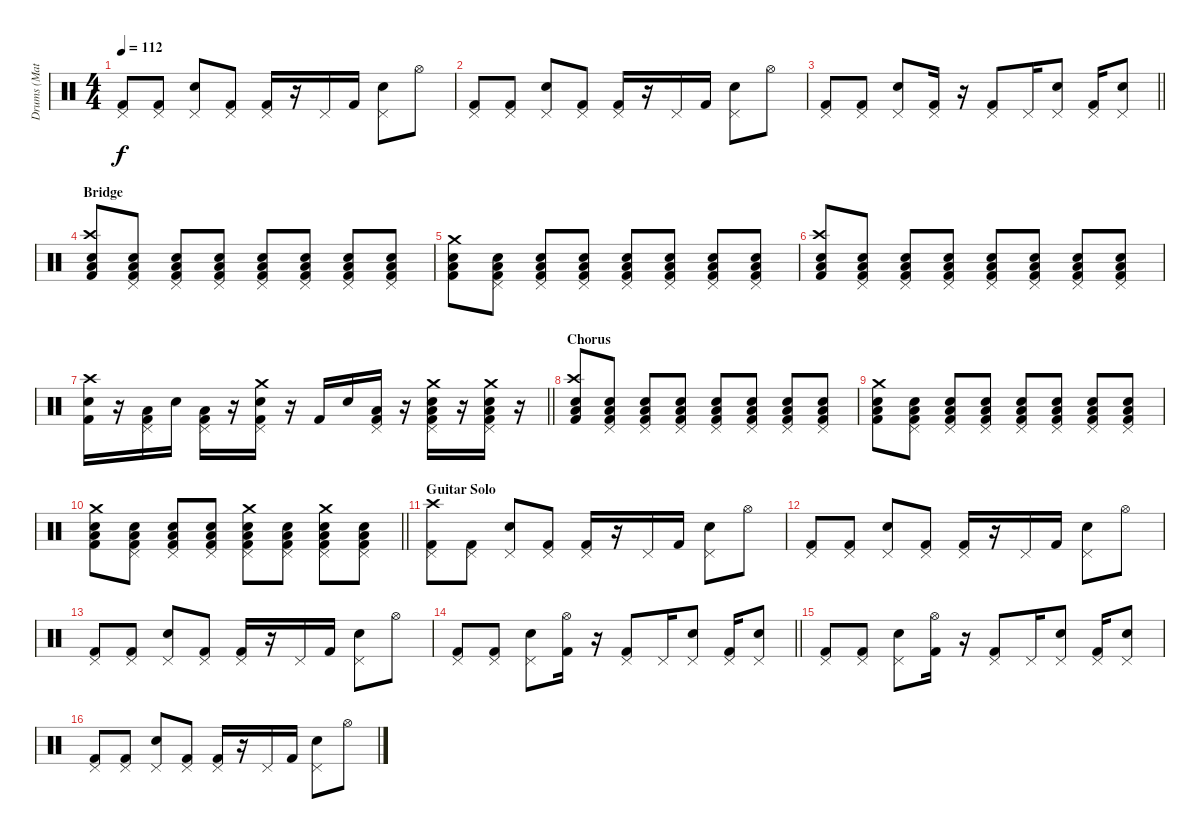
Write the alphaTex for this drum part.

\track ("Drums (Matt)" "Drums (Mat") {instrument percussion}
\staff {score}
\articulation defaults
\ts (4 4)
\tempo 112
\clef neutral
\ks c
("Pedal Hi-Hat (hit)" "Kick (hit) 2").8{dy f} ("Pedal Hi-Hat (hit)" "Kick (hit) 2").8 ("Pedal Hi-Hat (hit)" "Electric Snare (hit)").8 ("Pedal Hi-Hat (hit)" "Kick (hit) 2").8 ("Pedal Hi-Hat (hit)" "Kick (hit) 2").16 r.16 "Pedal Hi-Hat (hit)".16 "Kick (hit) 2".16 ("Pedal Hi-Hat (hit)" "Electric Snare (hit)").8 "Hi-Hat (open)".8 |
("Pedal Hi-Hat (hit)" "Kick (hit) 2").8 ("Pedal Hi-Hat (hit)" "Kick (hit) 2").8 ("Pedal Hi-Hat (hit)" "Electric Snare (hit)").8 ("Pedal Hi-Hat (hit)" "Kick (hit) 2").8 ("Pedal Hi-Hat (hit)" "Kick (hit) 2").16 r.16 "Pedal Hi-Hat (hit)".16 "Kick (hit) 2".16 ("Pedal Hi-Hat (hit)" "Electric Snare (hit)").8 "Hi-Hat (open)".8 |
\barLineRight lightlight
("Pedal Hi-Hat (hit)" "Kick (hit) 2").8 ("Pedal Hi-Hat (hit)" "Kick (hit) 2").8 ("Pedal Hi-Hat (hit)" "Electric Snare (hit)").8 ("Pedal Hi-Hat (hit)" "Kick (hit) 2").16 r.16 ("Pedal Hi-Hat (hit)" "Kick (hit) 2").8 "Pedal Hi-Hat (hit)".16 ("Pedal Hi-Hat (hit)" "Electric Snare (hit)").8 ("Pedal Hi-Hat (hit)" "Kick (hit) 2").16 ("Pedal Hi-Hat (hit)" "Electric Snare (hit)").8 |
\section ("" "Bridge")
("Crash high (hit)" "Electric Snare (hit)" "Low Floor Tom (hit)" "Kick (hit) 2").8 ("Pedal Hi-Hat (hit)" "Electric Snare (hit)" "Low Floor Tom (hit)" "Kick (hit) 2").8 ("Pedal Hi-Hat (hit)" "Electric Snare (hit)" "Low Floor Tom (hit)" "Kick (hit) 2").8 ("Pedal Hi-Hat (hit)" "Electric Snare (hit)" "Low Floor Tom (hit)" "Kick (hit) 2").8 ("Pedal Hi-Hat (hit)" "Electric Snare (hit)" "Low Floor Tom (hit)" "Kick (hit) 2").8 ("Pedal Hi-Hat (hit)" "Electric Snare (hit)" "Low Floor Tom (hit)" "Kick (hit) 2").8 ("Pedal Hi-Hat (hit)" "Electric Snare (hit)" "Low Floor Tom (hit)" "Kick (hit) 2").8 ("Pedal Hi-Hat (hit)" "Electric Snare (hit)" "Low Floor Tom (hit)" "Kick (hit) 2").8 |
("Crash medium (hit)" "Electric Snare (hit)" "Low Floor Tom (hit)" "Kick (hit) 2").8 ("Pedal Hi-Hat (hit)" "Electric Snare (hit)" "Low Floor Tom (hit)" "Kick (hit) 2").8 ("Pedal Hi-Hat (hit)" "Electric Snare (hit)" "Low Floor Tom (hit)" "Kick (hit) 2").8 ("Pedal Hi-Hat (hit)" "Electric Snare (hit)" "Low Floor Tom (hit)" "Kick (hit) 2").8 ("Pedal Hi-Hat (hit)" "Electric Snare (hit)" "Low Floor Tom (hit)" "Kick (hit) 2").8 ("Pedal Hi-Hat (hit)" "Electric Snare (hit)" "Low Floor Tom (hit)" "Kick (hit) 2").8 ("Pedal Hi-Hat (hit)" "Electric Snare (hit)" "Low Floor Tom (hit)" "Kick (hit) 2").8 ("Pedal Hi-Hat (hit)" "Electric Snare (hit)" "Low Floor Tom (hit)" "Kick (hit) 2").8 |
("Crash high (hit)" "Electric Snare (hit)" "Low Floor Tom (hit)" "Kick (hit) 2").8 ("Pedal Hi-Hat (hit)" "Electric Snare (hit)" "Low Floor Tom (hit)" "Kick (hit) 2").8 ("Pedal Hi-Hat (hit)" "Electric Snare (hit)" "Low Floor Tom (hit)" "Kick (hit) 2").8 ("Pedal Hi-Hat (hit)" "Electric Snare (hit)" "Low Floor Tom (hit)" "Kick (hit) 2").8 ("Pedal Hi-Hat (hit)" "Electric Snare (hit)" "Low Floor Tom (hit)" "Kick (hit) 2").8 ("Pedal Hi-Hat (hit)" "Electric Snare (hit)" "Low Floor Tom (hit)" "Kick (hit) 2").8 ("Pedal Hi-Hat (hit)" "Electric Snare (hit)" "Low Floor Tom (hit)" "Kick (hit) 2").8 ("Pedal Hi-Hat (hit)" "Electric Snare (hit)" "Low Floor Tom (hit)" "Kick (hit) 2").8 |
\barLineRight lightlight
("Crash high (hit)" "Electric Snare (hit)" "Kick (hit) 2").16 r.16 ("Pedal Hi-Hat (hit)" "Low Floor Tom (hit)" "Kick (hit) 2").16 "Electric Snare (hit)".16 ("Pedal Hi-Hat (hit)" "Low Floor Tom (hit)" "Kick (hit) 2").16 r.16 ("Crash medium (hit)" "Pedal Hi-Hat (hit)" "Electric Snare (hit)" "Kick (hit) 2").16 r.16 "Kick (hit) 2".16 "Electric Snare (hit)".16 ("Pedal Hi-Hat (hit)" "Low Floor Tom (hit)" "Kick (hit) 2").16 r.16 ("Crash medium (hit)" "Pedal Hi-Hat (hit)" "Electric Snare (hit)" "Low Floor Tom (hit)" "Kick (hit) 2").16 r.16 ("Crash medium (hit)" "Pedal Hi-Hat (hit)" "Electric Snare (hit)" "Low Floor Tom (hit)" "Kick (hit) 2").16 r.16 |
\section ("" "Chorus")
("Crash high (hit)" "Electric Snare (hit)" "Low Floor Tom (hit)" "Kick (hit) 2").8 ("Pedal Hi-Hat (hit)" "Electric Snare (hit)" "Low Floor Tom (hit)" "Kick (hit) 2").8 ("Pedal Hi-Hat (hit)" "Electric Snare (hit)" "Low Floor Tom (hit)" "Kick (hit) 2").8 ("Pedal Hi-Hat (hit)" "Electric Snare (hit)" "Low Floor Tom (hit)" "Kick (hit) 2").8 ("Pedal Hi-Hat (hit)" "Electric Snare (hit)" "Low Floor Tom (hit)" "Kick (hit) 2").8 ("Pedal Hi-Hat (hit)" "Electric Snare (hit)" "Low Floor Tom (hit)" "Kick (hit) 2").8 ("Pedal Hi-Hat (hit)" "Electric Snare (hit)" "Low Floor Tom (hit)" "Kick (hit) 2").8 ("Pedal Hi-Hat (hit)" "Electric Snare (hit)" "Low Floor Tom (hit)" "Kick (hit) 2").8 |
("Crash medium (hit)" "Electric Snare (hit)" "Low Floor Tom (hit)" "Kick (hit) 2").8 ("Pedal Hi-Hat (hit)" "Electric Snare (hit)" "Low Floor Tom (hit)" "Kick (hit) 2").8 ("Pedal Hi-Hat (hit)" "Electric Snare (hit)" "Low Floor Tom (hit)" "Kick (hit) 2").8 ("Pedal Hi-Hat (hit)" "Electric Snare (hit)" "Low Floor Tom (hit)" "Kick (hit) 2").8 ("Pedal Hi-Hat (hit)" "Electric Snare (hit)" "Low Floor Tom (hit)" "Kick (hit) 2").8 ("Pedal Hi-Hat (hit)" "Electric Snare (hit)" "Low Floor Tom (hit)" "Kick (hit) 2").8 ("Pedal Hi-Hat (hit)" "Electric Snare (hit)" "Low Floor Tom (hit)" "Kick (hit) 2").8 ("Pedal Hi-Hat (hit)" "Electric Snare (hit)" "Low Floor Tom (hit)" "Kick (hit) 2").8 |
\barLineRight lightlight
("Crash medium (hit)" "Electric Snare (hit)" "Low Floor Tom (hit)" "Kick (hit) 2").8 ("Pedal Hi-Hat (hit)" "Electric Snare (hit)" "Low Floor Tom (hit)" "Kick (hit) 2").8 ("Pedal Hi-Hat (hit)" "Electric Snare (hit)" "Low Floor Tom (hit)" "Kick (hit) 2").8 ("Pedal Hi-Hat (hit)" "Electric Snare (hit)" "Low Floor Tom (hit)" "Kick (hit) 2").8 ("Crash medium (hit)" "Pedal Hi-Hat (hit)" "Electric Snare (hit)" "Low Floor Tom (hit)" "Kick (hit) 2").8 ("Pedal Hi-Hat (hit)" "Electric Snare (hit)" "Low Floor Tom (hit)" "Kick (hit) 2").8 ("Crash medium (hit)" "Pedal Hi-Hat (hit)" "Electric Snare (hit)" "Low Floor Tom (hit)" "Kick (hit) 2").8 ("Pedal Hi-Hat (hit)" "Electric Snare (hit)" "Low Floor Tom (hit)" "Kick (hit) 2").8 |
\section ("" "Guitar Solo")
("Crash high (hit)" "Pedal Hi-Hat (hit)" "Kick (hit) 2").8 ("Pedal Hi-Hat (hit)" "Kick (hit) 2").8 ("Pedal Hi-Hat (hit)" "Electric Snare (hit)").8 ("Pedal Hi-Hat (hit)" "Kick (hit) 2").8 ("Pedal Hi-Hat (hit)" "Kick (hit) 2").16 r.16 "Pedal Hi-Hat (hit)".16 "Kick (hit) 2".16 ("Pedal Hi-Hat (hit)" "Electric Snare (hit)").8 "Hi-Hat (open)".8 |
("Pedal Hi-Hat (hit)" "Kick (hit) 2").8 ("Pedal Hi-Hat (hit)" "Kick (hit) 2").8 ("Pedal Hi-Hat (hit)" "Electric Snare (hit)").8 ("Pedal Hi-Hat (hit)" "Kick (hit) 2").8 ("Pedal Hi-Hat (hit)" "Kick (hit) 2").16 r.16 "Pedal Hi-Hat (hit)".16 "Kick (hit) 2".16 ("Pedal Hi-Hat (hit)" "Electric Snare (hit)").8 "Hi-Hat (open)".8 |
("Pedal Hi-Hat (hit)" "Kick (hit) 2").8 ("Pedal Hi-Hat (hit)" "Kick (hit) 2").8 ("Pedal Hi-Hat (hit)" "Electric Snare (hit)").8 ("Pedal Hi-Hat (hit)" "Kick (hit) 2").8 ("Pedal Hi-Hat (hit)" "Kick (hit) 2").16 r.16 "Pedal Hi-Hat (hit)".16 "Kick (hit) 2".16 ("Pedal Hi-Hat (hit)" "Electric Snare (hit)").8 "Hi-Hat (open)".8 |
\barLineRight lightlight
("Pedal Hi-Hat (hit)" "Kick (hit) 2").8 ("Pedal Hi-Hat (hit)" "Kick (hit) 2").8 ("Pedal Hi-Hat (hit)" "Electric Snare (hit)").8 ("Hi-Hat (open)" "Kick (hit) 2").16 r.16 ("Pedal Hi-Hat (hit)" "Kick (hit) 2").8 "Pedal Hi-Hat (hit)".16 ("Pedal Hi-Hat (hit)" "Electric Snare (hit)").8 ("Pedal Hi-Hat (hit)" "Kick (hit) 2").16 ("Pedal Hi-Hat (hit)" "Electric Snare (hit)").8 |
("Pedal Hi-Hat (hit)" "Kick (hit) 2").8 ("Pedal Hi-Hat (hit)" "Kick (hit) 2").8 ("Pedal Hi-Hat (hit)" "Electric Snare (hit)").8 ("Hi-Hat (open)" "Kick (hit) 2").16 r.16 ("Pedal Hi-Hat (hit)" "Kick (hit) 2").8 "Pedal Hi-Hat (hit)".16 ("Pedal Hi-Hat (hit)" "Electric Snare (hit)").8 ("Pedal Hi-Hat (hit)" "Kick (hit) 2").16 ("Pedal Hi-Hat (hit)" "Electric Snare (hit)").8 |
("Pedal Hi-Hat (hit)" "Kick (hit) 2").8 ("Pedal Hi-Hat (hit)" "Kick (hit) 2").8 ("Pedal Hi-Hat (hit)" "Electric Snare (hit)").8 ("Pedal Hi-Hat (hit)" "Kick (hit) 2").8 ("Pedal Hi-Hat (hit)" "Kick (hit) 2").16 r.16 "Pedal Hi-Hat (hit)".16 "Kick (hit) 2".16 ("Pedal Hi-Hat (hit)" "Electric Snare (hit)").8 "Hi-Hat (open)".8
